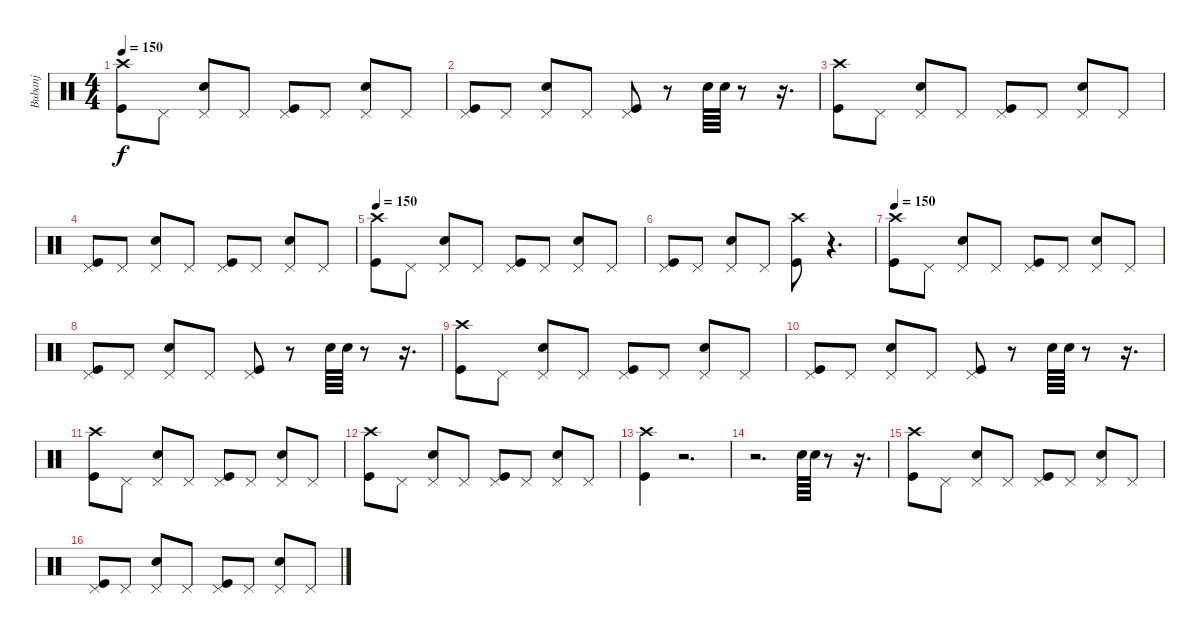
\track ("Bubanj" "Bubanj") {instrument percussion}
\staff {score}
\articulation defaults
\ts (4 4)
\tempo 150
\clef neutral
\ks c
("Crash high (hit)" "Kick (hit)").8{dy f} "Pedal Hi-Hat (hit)".8 ("Pedal Hi-Hat (hit)" "Electric Snare (hit)").8 "Pedal Hi-Hat (hit)".8 ("Pedal Hi-Hat (hit)" "Kick (hit)").8 "Pedal Hi-Hat (hit)".8 ("Pedal Hi-Hat (hit)" "Electric Snare (hit)").8 "Pedal Hi-Hat (hit)".8 |
("Pedal Hi-Hat (hit)" "Kick (hit)").8 "Pedal Hi-Hat (hit)".8 ("Pedal Hi-Hat (hit)" "Electric Snare (hit)").8 "Pedal Hi-Hat (hit)".8 ("Pedal Hi-Hat (hit)" "Kick (hit)").8 r.8 "Electric Snare (hit)".64 "Electric Snare (hit)".64 r.8 r.16{d} |
("Crash high (hit)" "Kick (hit)").8 "Pedal Hi-Hat (hit)".8 ("Pedal Hi-Hat (hit)" "Electric Snare (hit)").8 "Pedal Hi-Hat (hit)".8 ("Pedal Hi-Hat (hit)" "Kick (hit)").8 "Pedal Hi-Hat (hit)".8 ("Pedal Hi-Hat (hit)" "Electric Snare (hit)").8 "Pedal Hi-Hat (hit)".8 |
("Pedal Hi-Hat (hit)" "Kick (hit)").8 "Pedal Hi-Hat (hit)".8 ("Pedal Hi-Hat (hit)" "Electric Snare (hit)").8 "Pedal Hi-Hat (hit)".8 ("Pedal Hi-Hat (hit)" "Kick (hit)").8 "Pedal Hi-Hat (hit)".8 ("Pedal Hi-Hat (hit)" "Electric Snare (hit)").8 "Pedal Hi-Hat (hit)".8 |
\tempo 150
("Crash high (hit)" "Kick (hit)").8 "Pedal Hi-Hat (hit)".8 ("Pedal Hi-Hat (hit)" "Electric Snare (hit)").8 "Pedal Hi-Hat (hit)".8 ("Pedal Hi-Hat (hit)" "Kick (hit)").8 "Pedal Hi-Hat (hit)".8 ("Pedal Hi-Hat (hit)" "Electric Snare (hit)").8 "Pedal Hi-Hat (hit)".8 |
("Pedal Hi-Hat (hit)" "Kick (hit)").8 "Pedal Hi-Hat (hit)".8 ("Pedal Hi-Hat (hit)" "Electric Snare (hit)").8 "Pedal Hi-Hat (hit)".8 ("Crash high (hit)" "Kick (hit)").8 r.4{d} |
\tempo 150
("Crash high (hit)" "Kick (hit)").8 "Pedal Hi-Hat (hit)".8 ("Pedal Hi-Hat (hit)" "Electric Snare (hit)").8 "Pedal Hi-Hat (hit)".8 ("Pedal Hi-Hat (hit)" "Kick (hit)").8 "Pedal Hi-Hat (hit)".8 ("Pedal Hi-Hat (hit)" "Electric Snare (hit)").8 "Pedal Hi-Hat (hit)".8 |
("Pedal Hi-Hat (hit)" "Kick (hit)").8 "Pedal Hi-Hat (hit)".8 ("Pedal Hi-Hat (hit)" "Electric Snare (hit)").8 "Pedal Hi-Hat (hit)".8 ("Pedal Hi-Hat (hit)" "Kick (hit)").8 r.8 "Electric Snare (hit)".64 "Electric Snare (hit)".64 r.8 r.16{d} |
("Crash high (hit)" "Kick (hit)").8 "Pedal Hi-Hat (hit)".8 ("Pedal Hi-Hat (hit)" "Electric Snare (hit)").8 "Pedal Hi-Hat (hit)".8 ("Pedal Hi-Hat (hit)" "Kick (hit)").8 "Pedal Hi-Hat (hit)".8 ("Pedal Hi-Hat (hit)" "Electric Snare (hit)").8 "Pedal Hi-Hat (hit)".8 |
("Pedal Hi-Hat (hit)" "Kick (hit)").8 "Pedal Hi-Hat (hit)".8 ("Pedal Hi-Hat (hit)" "Electric Snare (hit)").8 "Pedal Hi-Hat (hit)".8 ("Pedal Hi-Hat (hit)" "Kick (hit)").8 r.8 "Electric Snare (hit)".64 "Electric Snare (hit)".64 r.8 r.16{d} |
("Crash high (hit)" "Kick (hit)").8 "Pedal Hi-Hat (hit)".8 ("Pedal Hi-Hat (hit)" "Electric Snare (hit)").8 "Pedal Hi-Hat (hit)".8 ("Pedal Hi-Hat (hit)" "Kick (hit)").8 "Pedal Hi-Hat (hit)".8 ("Pedal Hi-Hat (hit)" "Electric Snare (hit)").8 "Pedal Hi-Hat (hit)".8 |
("Crash high (hit)" "Kick (hit)").8 "Pedal Hi-Hat (hit)".8 ("Pedal Hi-Hat (hit)" "Electric Snare (hit)").8 "Pedal Hi-Hat (hit)".8 ("Pedal Hi-Hat (hit)" "Kick (hit)").8 "Pedal Hi-Hat (hit)".8 ("Pedal Hi-Hat (hit)" "Electric Snare (hit)").8 "Pedal Hi-Hat (hit)".8 |
("Crash high (hit)" "Kick (hit)").4 r.2{d} |
r.2{d} "Electric Snare (hit)".64 "Electric Snare (hit)".64 r.8 r.16{d} |
("Crash high (hit)" "Kick (hit)").8 "Pedal Hi-Hat (hit)".8 ("Pedal Hi-Hat (hit)" "Electric Snare (hit)").8 "Pedal Hi-Hat (hit)".8 ("Pedal Hi-Hat (hit)" "Kick (hit)").8 "Pedal Hi-Hat (hit)".8 ("Pedal Hi-Hat (hit)" "Electric Snare (hit)").8 "Pedal Hi-Hat (hit)".8 |
("Pedal Hi-Hat (hit)" "Kick (hit)").8 "Pedal Hi-Hat (hit)".8 ("Pedal Hi-Hat (hit)" "Electric Snare (hit)").8 "Pedal Hi-Hat (hit)".8 ("Pedal Hi-Hat (hit)" "Kick (hit)").8 "Pedal Hi-Hat (hit)".8 ("Pedal Hi-Hat (hit)" "Electric Snare (hit)").8 "Pedal Hi-Hat (hit)".8
